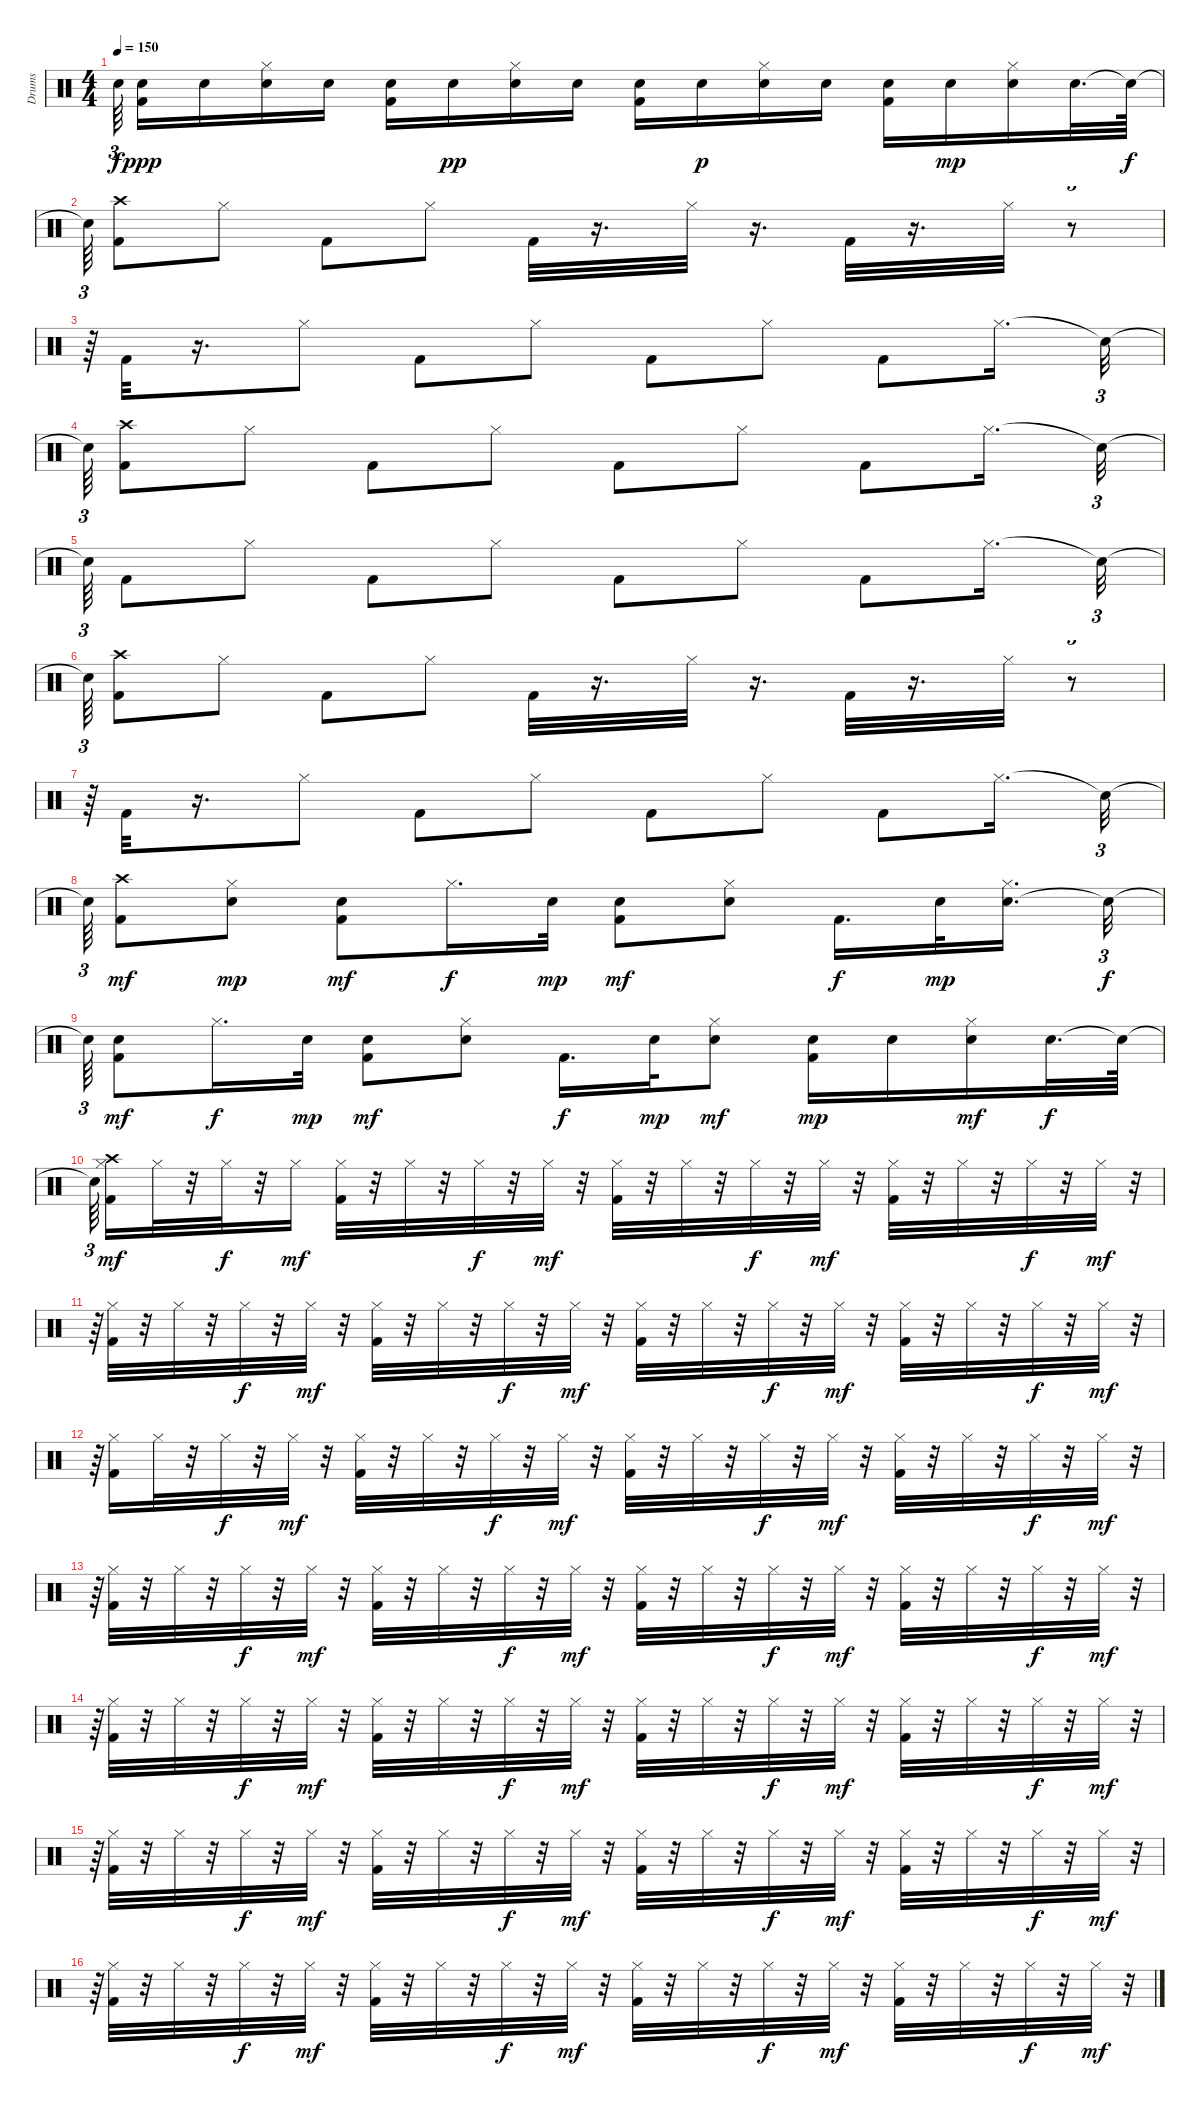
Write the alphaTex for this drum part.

\track ("Drums" "Drums") {instrument percussion}
\staff {score}
\articulation defaults
\ts (4 4)
\tempo 150
\clef neutral
\ks c "Snare (hit)"{t}.64{tu (3 2) dy f}
("Kick (hit) 2" "Electric Snare (hit)").16{dy ppp} "Electric Snare (hit)".16 ("Hi-Hat (closed)" "Electric Snare (hit)").16 "Electric Snare (hit)".16 ("Kick (hit) 2" "Electric Snare (hit)").16 "Electric Snare (hit)".16{dy pp} ("Hi-Hat (closed)" "Electric Snare (hit)").16 "Electric Snare (hit)".16 ("Kick (hit) 2" "Electric Snare (hit)").16 "Electric Snare (hit)".16{dy p} ("Hi-Hat (closed)" "Electric Snare (hit)").16 "Electric Snare (hit)".16 ("Kick (hit) 2" "Electric Snare (hit)").16 "Electric Snare (hit)".16{dy mp} ("Hi-Hat (closed)" "Electric Snare (hit)").16 "Electric Snare (hit)".32{d} "Snare (hit)"{t}.64{dy f} |
"Snare (hit)"{t}.64{tu (3 2)} ("Crash high (hit)" "Kick (hit) 2").8 "Hi-Hat (closed)".8 "Kick (hit) 2".8 "Hi-Hat (closed)".8 "Kick (hit) 2".32 r.16{d} "Hi-Hat (closed)".32 r.16{d} "Kick (hit) 2".32 r.16{d} "Hi-Hat (closed)".32 r.8{tu (3 2)} |
r.64{tu (3 2)} "Kick (hit) 2".32 r.16{d} "Hi-Hat (closed)".8 "Kick (hit) 2".8 "Hi-Hat (closed)".8 "Kick (hit) 2".8 "Hi-Hat (closed)".8 "Kick (hit) 2".8 "Hi-Hat (closed)".16{d} "Snare (hit)"{t}.32{tu (3 2)} |
"Snare (hit)"{t}.64{tu (3 2)} ("Crash high (hit)" "Kick (hit) 2").8 "Hi-Hat (closed)".8 "Kick (hit) 2".8 "Hi-Hat (closed)".8 "Kick (hit) 2".8 "Hi-Hat (closed)".8 "Kick (hit) 2".8 "Hi-Hat (closed)".16{d} "Snare (hit)"{t}.32{tu (3 2)} |
"Snare (hit)"{t}.64{tu (3 2)} "Kick (hit) 2".8 "Hi-Hat (closed)".8 "Kick (hit) 2".8 "Hi-Hat (closed)".8 "Kick (hit) 2".8 "Hi-Hat (closed)".8 "Kick (hit) 2".8 "Hi-Hat (closed)".16{d} "Snare (hit)"{t}.32{tu (3 2)} |
"Snare (hit)"{t}.64{tu (3 2)} ("Crash high (hit)" "Kick (hit) 2").8 "Hi-Hat (closed)".8 "Kick (hit) 2".8 "Hi-Hat (closed)".8 "Kick (hit) 2".32 r.16{d} "Hi-Hat (closed)".32 r.16{d} "Kick (hit) 2".32 r.16{d} "Hi-Hat (closed)".32 r.8{tu (3 2)} |
r.64{tu (3 2)} "Kick (hit) 2".32 r.16{d} "Hi-Hat (closed)".8 "Kick (hit) 2".8 "Hi-Hat (closed)".8 "Kick (hit) 2".8 "Hi-Hat (closed)".8 "Kick (hit) 2".8 "Hi-Hat (closed)".16{d} "Snare (hit)"{t}.32{tu (3 2)} |
"Snare (hit)"{t}.64{tu (3 2)} ("Crash high (hit)" "Kick (hit) 2").8{dy mf} ("Electric Snare (hit)" "Hi-Hat (closed)").8{dy mp} ("Electric Snare (hit)" "Kick (hit) 2").8{dy mf} "Hi-Hat (closed)".16{d dy f} "Electric Snare (hit)".32{dy mp} ("Electric Snare (hit)" "Kick (hit) 2").8{dy mf} ("Electric Snare (hit)" "Hi-Hat (closed)").8 "Kick (hit) 2".16{d dy f} "Electric Snare (hit)".32{dy mp} ("Electric Snare (hit)" "Hi-Hat (closed)").16{d} "Snare (hit)"{t}.32{tu (3 2) dy f} |
"Snare (hit)"{t}.64{tu (3 2)} ("Electric Snare (hit)" "Kick (hit) 2").8{dy mf} "Hi-Hat (closed)".16{d dy f} "Electric Snare (hit)".32{dy mp} ("Electric Snare (hit)" "Kick (hit) 2").8{dy mf} ("Electric Snare (hit)" "Hi-Hat (closed)").8 "Kick (hit) 2".16{d dy f} "Electric Snare (hit)".32{dy mp} ("Electric Snare (hit)" "Hi-Hat (closed)").8{dy mf} ("Electric Snare (hit)" "Kick (hit) 2").16{dy mp} "Electric Snare (hit)".16 ("Electric Snare (hit)" "Hi-Hat (closed)").16{dy mf} "Electric Snare (hit)".32{d dy f} "Snare (hit)"{t}.64 |
"Snare (hit)"{t}.64{tu (3 2)} ("Hi-Hat (closed)" "Kick (hit) 2" "Crash high (hit)").16{dy mf} "Hi-Hat (closed)".32 r.32 "Hi-Hat (closed)".32{dy f} r.32 "Hi-Hat (closed)".16{dy mf} ("Hi-Hat (closed)" "Kick (hit) 2").32 r.32 "Hi-Hat (closed)".32 r.32 "Hi-Hat (closed)".32{dy f} r.32 "Hi-Hat (closed)".32{dy mf} r.32 ("Hi-Hat (closed)" "Kick (hit) 2").32 r.32 "Hi-Hat (closed)".32 r.32 "Hi-Hat (closed)".32{dy f} r.32 "Hi-Hat (closed)".32{dy mf} r.32 ("Hi-Hat (closed)" "Kick (hit) 2").32 r.32 "Hi-Hat (closed)".32 r.32 "Hi-Hat (closed)".32{dy f} r.32 "Hi-Hat (closed)".32{dy mf} r.32{tu (3 2)} |
r.64{tu (3 2)} ("Hi-Hat (closed)" "Kick (hit) 2").32 r.32 "Hi-Hat (closed)".32 r.32 "Hi-Hat (closed)".32{dy f} r.32 "Hi-Hat (closed)".32{dy mf} r.32 ("Hi-Hat (closed)" "Kick (hit) 2").32 r.32 "Hi-Hat (closed)".32 r.32 "Hi-Hat (closed)".32{dy f} r.32 "Hi-Hat (closed)".32{dy mf} r.32 ("Hi-Hat (closed)" "Kick (hit) 2").32 r.32 "Hi-Hat (closed)".32 r.32 "Hi-Hat (closed)".32{dy f} r.32 "Hi-Hat (closed)".32{dy mf} r.32 ("Hi-Hat (closed)" "Kick (hit) 2").32 r.32 "Hi-Hat (closed)".32 r.32 "Hi-Hat (closed)".32{dy f} r.32 "Hi-Hat (closed)".32{dy mf} r.32{tu (3 2)} |
r.64{tu (3 2)} ("Hi-Hat (closed)" "Kick (hit) 2").16 "Hi-Hat (closed)".32 r.32 "Hi-Hat (closed)".32{dy f} r.32 "Hi-Hat (closed)".32{dy mf} r.32 ("Hi-Hat (closed)" "Kick (hit) 2").32 r.32 "Hi-Hat (closed)".32 r.32 "Hi-Hat (closed)".32{dy f} r.32 "Hi-Hat (closed)".32{dy mf} r.32 ("Hi-Hat (closed)" "Kick (hit) 2").32 r.32 "Hi-Hat (closed)".32 r.32 "Hi-Hat (closed)".32{dy f} r.32 "Hi-Hat (closed)".32{dy mf} r.32 ("Hi-Hat (closed)" "Kick (hit) 2").32 r.32 "Hi-Hat (closed)".32 r.32 "Hi-Hat (closed)".32{dy f} r.32 "Hi-Hat (closed)".32{dy mf} r.32{tu (3 2)} |
r.64{tu (3 2)} ("Hi-Hat (closed)" "Kick (hit) 2").32 r.32 "Hi-Hat (closed)".32 r.32 "Hi-Hat (closed)".32{dy f} r.32 "Hi-Hat (closed)".32{dy mf} r.32 ("Hi-Hat (closed)" "Kick (hit) 2").32 r.32 "Hi-Hat (closed)".32 r.32 "Hi-Hat (closed)".32{dy f} r.32 "Hi-Hat (closed)".32{dy mf} r.32 ("Hi-Hat (closed)" "Kick (hit) 2").32 r.32 "Hi-Hat (closed)".32 r.32 "Hi-Hat (closed)".32{dy f} r.32 "Hi-Hat (closed)".32{dy mf} r.32 ("Hi-Hat (closed)" "Kick (hit) 2").32 r.32 "Hi-Hat (closed)".32 r.32 "Hi-Hat (closed)".32{dy f} r.32 "Hi-Hat (closed)".32{dy mf} r.32{tu (3 2)} |
r.64{tu (3 2)} ("Hi-Hat (closed)" "Kick (hit) 2").32 r.32 "Hi-Hat (closed)".32 r.32 "Hi-Hat (closed)".32{dy f} r.32 "Hi-Hat (closed)".32{dy mf} r.32 ("Hi-Hat (closed)" "Kick (hit) 2").32 r.32 "Hi-Hat (closed)".32 r.32 "Hi-Hat (closed)".32{dy f} r.32 "Hi-Hat (closed)".32{dy mf} r.32 ("Hi-Hat (closed)" "Kick (hit) 2").32 r.32 "Hi-Hat (closed)".32 r.32 "Hi-Hat (closed)".32{dy f} r.32 "Hi-Hat (closed)".32{dy mf} r.32 ("Hi-Hat (closed)" "Kick (hit) 2").32 r.32 "Hi-Hat (closed)".32 r.32 "Hi-Hat (closed)".32{dy f} r.32 "Hi-Hat (closed)".32{dy mf} r.32{tu (3 2)} |
r.64{tu (3 2)} ("Hi-Hat (closed)" "Kick (hit) 2").32 r.32 "Hi-Hat (closed)".32 r.32 "Hi-Hat (closed)".32{dy f} r.32 "Hi-Hat (closed)".32{dy mf} r.32 ("Hi-Hat (closed)" "Kick (hit) 2").32 r.32 "Hi-Hat (closed)".32 r.32 "Hi-Hat (closed)".32{dy f} r.32 "Hi-Hat (closed)".32{dy mf} r.32 ("Hi-Hat (closed)" "Kick (hit) 2").32 r.32 "Hi-Hat (closed)".32 r.32 "Hi-Hat (closed)".32{dy f} r.32 "Hi-Hat (closed)".32{dy mf} r.32 ("Hi-Hat (closed)" "Kick (hit) 2").32 r.32 "Hi-Hat (closed)".32 r.32 "Hi-Hat (closed)".32{dy f} r.32 "Hi-Hat (closed)".32{dy mf} r.32{tu (3 2)} |
r.64{tu (3 2)} ("Hi-Hat (closed)" "Kick (hit) 2").32 r.32 "Hi-Hat (closed)".32 r.32 "Hi-Hat (closed)".32{dy f} r.32 "Hi-Hat (closed)".32{dy mf} r.32 ("Hi-Hat (closed)" "Kick (hit) 2").32 r.32 "Hi-Hat (closed)".32 r.32 "Hi-Hat (closed)".32{dy f} r.32 "Hi-Hat (closed)".32{dy mf} r.32 ("Hi-Hat (closed)" "Kick (hit) 2").32 r.32 "Hi-Hat (closed)".32 r.32 "Hi-Hat (closed)".32{dy f} r.32 "Hi-Hat (closed)".32{dy mf} r.32 ("Hi-Hat (closed)" "Kick (hit) 2").32 r.32 "Hi-Hat (closed)".32 r.32 "Hi-Hat (closed)".32{dy f} r.32 "Hi-Hat (closed)".32{dy mf} r.32{tu (3 2)}
